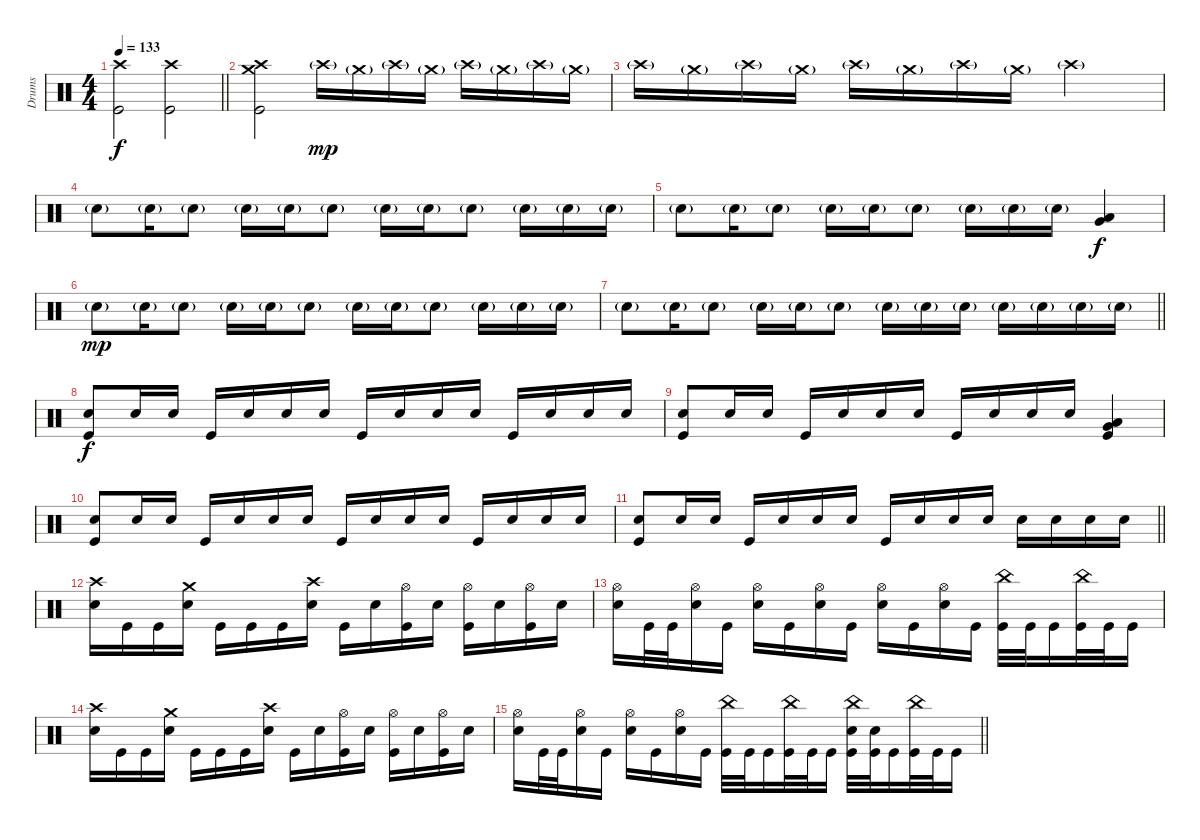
\track ("Drums" "Drums") {instrument percussion}
\staff
\articulation defaults
\ts (4 4)
\tempo 133
\clef neutral
\barLineRight lightlight
\ks c
("Crash high (hit)" "Kick (hit)").2{dy f} ("Crash high (hit)" "Kick (hit)").2 |
\section ("" "")
("Crash high (hit)" "Crash medium (hit)" "Kick (hit)").2 "Crash high (hit)"{g}.16{dy mp} "Crash medium (hit)"{g}.16 "Crash high (hit)"{g}.16 "Crash medium (hit)"{g}.16 "Crash high (hit)"{g}.16 "Crash medium (hit)"{g}.16 "Crash high (hit)"{g}.16 "Crash medium (hit)"{g}.16 |
"Crash high (hit)"{g}.16 "Crash medium (hit)"{g}.16 "Crash high (hit)"{g}.16 "Crash medium (hit)"{g}.16 "Crash high (hit)"{g}.16 "Crash medium (hit)"{g}.16 "Crash high (hit)"{g}.16 "Crash medium (hit)"{g}.16 "Crash high (hit)"{g}.2 |
"Electric Snare (hit)"{g}.8 "Electric Snare (hit)"{g}.16 "Electric Snare (hit)"{g}.8 "Electric Snare (hit)"{g}.16 "Electric Snare (hit)"{g}.16 "Electric Snare (hit)"{g}.8 "Electric Snare (hit)"{g}.16 "Electric Snare (hit)"{g}.16 "Electric Snare (hit)"{g}.8 "Electric Snare (hit)"{g}.16 "Electric Snare (hit)"{g}.16 "Electric Snare (hit)"{g}.16 |
"Electric Snare (hit)"{g}.8 "Electric Snare (hit)"{g}.16 "Electric Snare (hit)"{g}.8 "Electric Snare (hit)"{g}.16 "Electric Snare (hit)"{g}.16 "Electric Snare (hit)"{g}.8 "Electric Snare (hit)"{g}.16 "Electric Snare (hit)"{g}.16 "Electric Snare (hit)"{g}.16 ("Very Low Tom (hit)" "Low Floor Tom (hit)").4{dy f} |
"Electric Snare (hit)"{g}.8{dy mp} "Electric Snare (hit)"{g}.16 "Electric Snare (hit)"{g}.8 "Electric Snare (hit)"{g}.16 "Electric Snare (hit)"{g}.16 "Electric Snare (hit)"{g}.8 "Electric Snare (hit)"{g}.16 "Electric Snare (hit)"{g}.16 "Electric Snare (hit)"{g}.8 "Electric Snare (hit)"{g}.16 "Electric Snare (hit)"{g}.16 "Electric Snare (hit)"{g}.16 |
\barLineRight lightlight "Electric Snare (hit)"{g}.8 "Electric Snare (hit)"{g}.16 "Electric Snare (hit)"{g}.8 "Electric Snare (hit)"{g}.16 "Electric Snare (hit)"{g}.16 "Electric Snare (hit)"{g}.8 "Electric Snare (hit)"{g}.16 "Electric Snare (hit)"{g}.16 "Electric Snare (hit)"{g}.16 "Electric Snare (hit)"{g}.16 "Electric Snare (hit)"{g}.16 "Electric Snare (hit)"{g}.16 "Electric Snare (hit)"{g}.16
|
("Electric Snare (hit)" "Kick (hit)").8{dy f} "Electric Snare (hit)".16 "Electric Snare (hit)".16 "Kick (hit)".16 "Electric Snare (hit)".16 "Electric Snare (hit)".16 "Electric Snare (hit)".16 "Kick (hit)".16 "Electric Snare (hit)".16 "Electric Snare (hit)".16 "Electric Snare (hit)".16 "Kick (hit)".16 "Electric Snare (hit)".16 "Electric Snare (hit)".16 "Electric Snare (hit)".16 |
("Electric Snare (hit)" "Kick (hit)").8 "Electric Snare (hit)".16 "Electric Snare (hit)".16 "Kick (hit)".16 "Electric Snare (hit)".16 "Electric Snare (hit)".16 "Electric Snare (hit)".16 "Kick (hit)".16 "Electric Snare (hit)".16 "Electric Snare (hit)".16 "Electric Snare (hit)".16 ("Very Low Tom (hit)" "Low Floor Tom (hit)" "Kick (hit)").4 |
("Electric Snare (hit)" "Kick (hit)").8 "Electric Snare (hit)".16 "Electric Snare (hit)".16 "Kick (hit)".16 "Electric Snare (hit)".16 "Electric Snare (hit)".16 "Electric Snare (hit)".16 "Kick (hit)".16 "Electric Snare (hit)".16 "Electric Snare (hit)".16 "Electric Snare (hit)".16 "Kick (hit)".16 "Electric Snare (hit)".16 "Electric Snare (hit)".16 "Electric Snare (hit)".16 |
\barLineRight lightlight
("Electric Snare (hit)" "Kick (hit)").8 "Electric Snare (hit)".16 "Electric Snare (hit)".16 "Kick (hit)".16 "Electric Snare (hit)".16 "Electric Snare (hit)".16 "Electric Snare (hit)".16 "Kick (hit)".16 "Electric Snare (hit)".16 "Electric Snare (hit)".16 "Electric Snare (hit)".16 "Electric Snare (hit)".16 "Electric Snare (hit)".16 "Electric Snare (hit)".16 "Electric Snare (hit)".16 |
("Crash high (hit)" "Electric Snare (hit)").16 "Kick (hit)".16 "Kick (hit)".16 ("Crash medium (hit)" "Electric Snare (hit)").16 "Kick (hit)".16 "Kick (hit)".16 "Kick (hit)".16 ("Crash high (hit)" "Electric Snare (hit)").16 "Kick (hit)".16 "Electric Snare (hit)".16 ("Hi-Hat (open)" "Kick (hit)").16 "Electric Snare (hit)".16 ("Hi-Hat (open)" "Kick (hit)").16 "Electric Snare (hit)".16 ("Hi-Hat (open)" "Kick (hit)").16 "Electric Snare (hit)".16 |
("Hi-Hat (open)" "Electric Snare (hit)").16 "Kick (hit)".32 "Kick (hit)".32 ("Hi-Hat (open)" "Electric Snare (hit)").16 "Kick (hit)".16 ("Hi-Hat (open)" "Electric Snare (hit)").16 "Kick (hit)".16 ("Hi-Hat (open)" "Electric Snare (hit)").16 "Kick (hit)".16 ("Hi-Hat (open)" "Electric Snare (hit)").16 "Kick (hit)".16 ("Hi-Hat (open)" "Electric Snare (hit)").16 "Kick (hit)".16 ("China (hit)" "Kick (hit)").32 "Kick (hit)".32 "Kick (hit)".16 ("China (hit)" "Kick (hit)").32 "Kick (hit)".32 "Kick (hit)".16 |
("Crash high (hit)" "Electric Snare (hit)").16 "Kick (hit)".16 "Kick (hit)".16 ("Crash medium (hit)" "Electric Snare (hit)").16 "Kick (hit)".16 "Kick (hit)".16 "Kick (hit)".16 ("Crash high (hit)" "Electric Snare (hit)").16 "Kick (hit)".16 "Electric Snare (hit)".16 ("Hi-Hat (open)" "Kick (hit)").16 "Electric Snare (hit)".16 ("Hi-Hat (open)" "Kick (hit)").16 "Electric Snare (hit)".16 ("Hi-Hat (open)" "Kick (hit)").16 "Electric Snare (hit)".16 |
\barLineRight lightlight
("Hi-Hat (open)" "Electric Snare (hit)").16 "Kick (hit)".32 "Kick (hit)".32 ("Hi-Hat (open)" "Electric Snare (hit)").16 "Kick (hit)".16 ("Hi-Hat (open)" "Electric Snare (hit)").16 "Kick (hit)".16 ("Hi-Hat (open)" "Electric Snare (hit)").16 "Kick (hit)".16 ("China (hit)" "Kick (hit)").32 "Kick (hit)".32 "Kick (hit)".16 ("China (hit)" "Kick (hit)").32 "Kick (hit)".32 "Kick (hit)".16 ("China (hit)" "Electric Snare (hit)" "Kick (hit)").32 ("Electric Snare (hit)" "Kick (hit)").32 "Kick (hit)".16 ("China (hit)" "Kick (hit)").32 "Kick (hit)".32 "Kick (hit)".16
